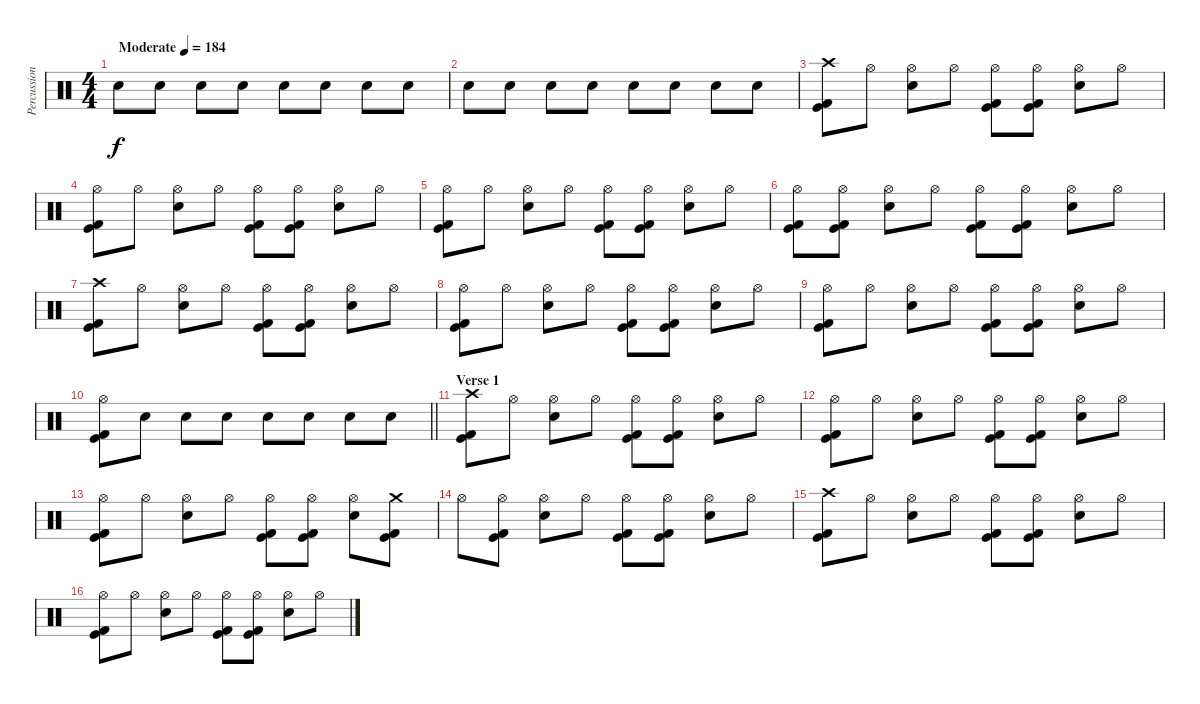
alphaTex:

\track ("Percussion" "Percussion") {instrument percussion}
\staff {score}
\articulation defaults
\ts (4 4)
\tempo (184 "Moderate")
\clef neutral
\ks c "Electric Snare (hit)".8{dy f} "Electric Snare (hit)".8 "Electric Snare (hit)".8 "Electric Snare (hit)".8 "Electric Snare (hit)".8 "Electric Snare (hit)".8 "Electric Snare (hit)".8 "Electric Snare (hit)".8
|
"Electric Snare (hit)".8 "Electric Snare (hit)".8 "Electric Snare (hit)".8 "Electric Snare (hit)".8 "Electric Snare (hit)".8 "Electric Snare (hit)".8 "Electric Snare (hit)".8 "Electric Snare (hit)".8 |
("Crash high (hit)" "Kick (hit)" "Kick (hit) 2").8 "Hi-Hat (open)".8 ("Hi-Hat (open)" "Electric Snare (hit)").8 "Hi-Hat (open)".8 ("Hi-Hat (open)" "Kick (hit)" "Kick (hit) 2").8 ("Hi-Hat (open)" "Kick (hit)" "Kick (hit) 2").8 ("Hi-Hat (open)" "Electric Snare (hit)").8 "Hi-Hat (open)".8 |
("Hi-Hat (open)" "Kick (hit)" "Kick (hit) 2").8 "Hi-Hat (open)".8 ("Hi-Hat (open)" "Electric Snare (hit)").8 "Hi-Hat (open)".8 ("Hi-Hat (open)" "Kick (hit)" "Kick (hit) 2").8 ("Hi-Hat (open)" "Kick (hit)" "Kick (hit) 2").8 ("Hi-Hat (open)" "Electric Snare (hit)").8 "Hi-Hat (open)".8 |
("Hi-Hat (open)" "Kick (hit)" "Kick (hit) 2").8 "Hi-Hat (open)".8 ("Hi-Hat (open)" "Electric Snare (hit)").8 "Hi-Hat (open)".8 ("Hi-Hat (open)" "Kick (hit)" "Kick (hit) 2").8 ("Hi-Hat (open)" "Kick (hit)" "Kick (hit) 2").8 ("Hi-Hat (open)" "Electric Snare (hit)").8 "Hi-Hat (open)".8 |
("Hi-Hat (open)" "Kick (hit)" "Kick (hit) 2").8 ("Hi-Hat (open)" "Kick (hit)" "Kick (hit) 2").8 ("Hi-Hat (open)" "Electric Snare (hit)").8 "Hi-Hat (open)".8 ("Hi-Hat (open)" "Kick (hit)" "Kick (hit) 2").8 ("Hi-Hat (open)" "Kick (hit)" "Kick (hit) 2").8 ("Hi-Hat (open)" "Electric Snare (hit)").8 "Hi-Hat (open)".8 |
("Crash high (hit)" "Kick (hit)" "Kick (hit) 2").8 "Hi-Hat (open)".8 ("Hi-Hat (open)" "Electric Snare (hit)").8 "Hi-Hat (open)".8 ("Hi-Hat (open)" "Kick (hit)" "Kick (hit) 2").8 ("Hi-Hat (open)" "Kick (hit)" "Kick (hit) 2").8 ("Hi-Hat (open)" "Electric Snare (hit)").8 "Hi-Hat (open)".8 |
("Hi-Hat (open)" "Kick (hit)" "Kick (hit) 2").8 "Hi-Hat (open)".8 ("Hi-Hat (open)" "Electric Snare (hit)").8 "Hi-Hat (open)".8 ("Hi-Hat (open)" "Kick (hit)" "Kick (hit) 2").8 ("Hi-Hat (open)" "Kick (hit)" "Kick (hit) 2").8 ("Hi-Hat (open)" "Electric Snare (hit)").8 "Hi-Hat (open)".8 |
("Hi-Hat (open)" "Kick (hit)" "Kick (hit) 2").8 "Hi-Hat (open)".8 ("Hi-Hat (open)" "Electric Snare (hit)").8 "Hi-Hat (open)".8 ("Hi-Hat (open)" "Kick (hit)" "Kick (hit) 2").8 ("Hi-Hat (open)" "Kick (hit)" "Kick (hit) 2").8 ("Hi-Hat (open)" "Electric Snare (hit)").8 "Hi-Hat (open)".8 |
\barLineRight lightlight
("Hi-Hat (open)" "Kick (hit)" "Kick (hit) 2").8 "Electric Snare (hit)".8 "Electric Snare (hit)".8 "Electric Snare (hit)".8 "Electric Snare (hit)".8 "Electric Snare (hit)".8 "Electric Snare (hit)".8 "Electric Snare (hit)".8 |
\section ("" "Verse 1")
("Crash high (hit)" "Kick (hit)" "Kick (hit) 2").8 "Hi-Hat (open)".8 ("Hi-Hat (open)" "Electric Snare (hit)").8 "Hi-Hat (open)".8 ("Hi-Hat (open)" "Kick (hit)" "Kick (hit) 2").8 ("Hi-Hat (open)" "Kick (hit)" "Kick (hit) 2").8 ("Hi-Hat (open)" "Electric Snare (hit)").8 "Hi-Hat (open)".8 |
("Hi-Hat (open)" "Kick (hit)" "Kick (hit) 2").8 "Hi-Hat (open)".8 ("Hi-Hat (open)" "Electric Snare (hit)").8 "Hi-Hat (open)".8 ("Hi-Hat (open)" "Kick (hit)" "Kick (hit) 2").8 ("Hi-Hat (open)" "Kick (hit)" "Kick (hit) 2").8 ("Hi-Hat (open)" "Electric Snare (hit)").8 "Hi-Hat (open)".8 |
("Hi-Hat (open)" "Kick (hit)" "Kick (hit) 2").8 "Hi-Hat (open)".8 ("Hi-Hat (open)" "Electric Snare (hit)").8 "Hi-Hat (open)".8 ("Hi-Hat (open)" "Kick (hit)" "Kick (hit) 2").8 ("Hi-Hat (open)" "Kick (hit)" "Kick (hit) 2").8 ("Hi-Hat (open)" "Electric Snare (hit)").8 ("Crash medium (hit)" "Kick (hit)" "Kick (hit) 2").8 |
"Hi-Hat (open)".8 ("Hi-Hat (open)" "Kick (hit)" "Kick (hit) 2").8 ("Hi-Hat (open)" "Electric Snare (hit)").8 "Hi-Hat (open)".8 ("Hi-Hat (open)" "Kick (hit)" "Kick (hit) 2").8 ("Hi-Hat (open)" "Kick (hit)" "Kick (hit) 2").8 ("Hi-Hat (open)" "Electric Snare (hit)").8 "Hi-Hat (open)".8 |
("Crash high (hit)" "Kick (hit)" "Kick (hit) 2").8 "Hi-Hat (open)".8 ("Hi-Hat (open)" "Electric Snare (hit)").8 "Hi-Hat (open)".8 ("Hi-Hat (open)" "Kick (hit)" "Kick (hit) 2").8 ("Hi-Hat (open)" "Kick (hit)" "Kick (hit) 2").8 ("Hi-Hat (open)" "Electric Snare (hit)").8 "Hi-Hat (open)".8 |
("Hi-Hat (open)" "Kick (hit)" "Kick (hit) 2").8 "Hi-Hat (open)".8 ("Hi-Hat (open)" "Electric Snare (hit)").8 "Hi-Hat (open)".8 ("Hi-Hat (open)" "Kick (hit)" "Kick (hit) 2").8 ("Hi-Hat (open)" "Kick (hit)" "Kick (hit) 2").8 ("Hi-Hat (open)" "Electric Snare (hit)").8 "Hi-Hat (open)".8
